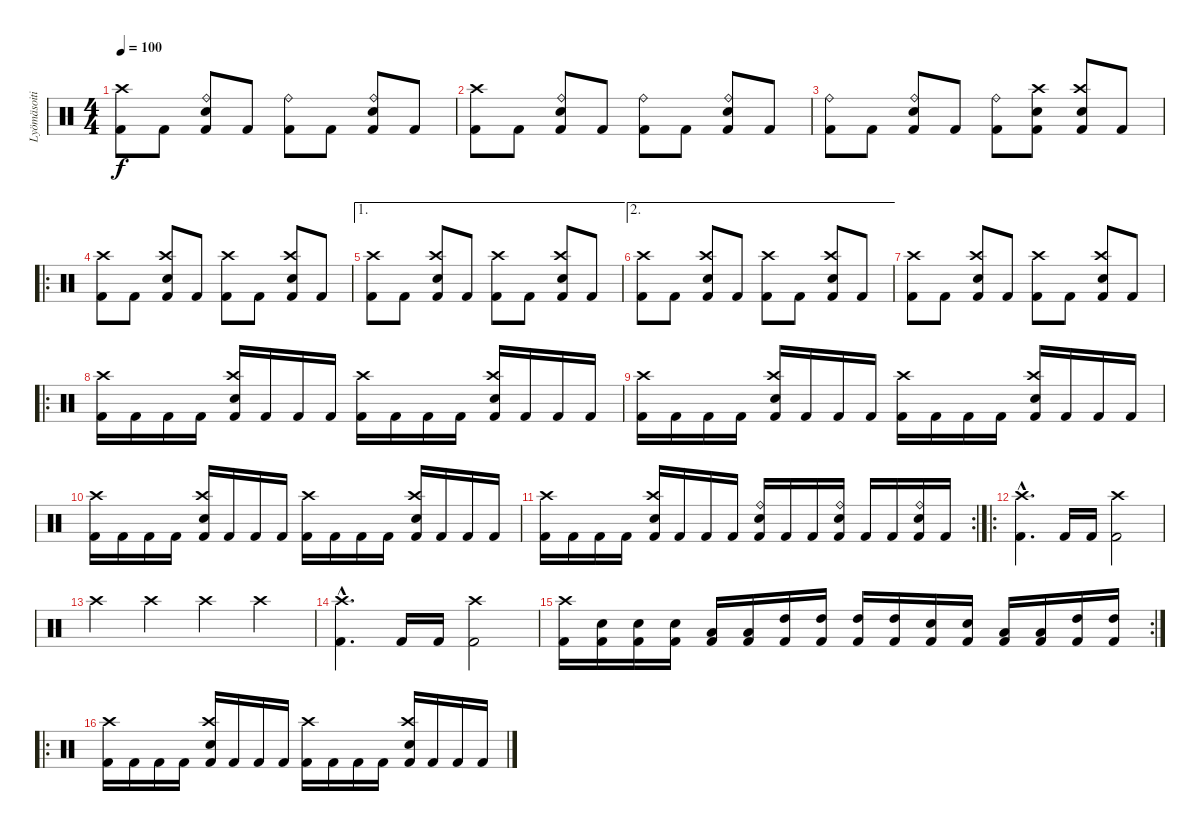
\track ("Lyömäsoitin" "Lyömäsoiti") {instrument percussion}
\staff {score}
\articulation defaults
\ts (4 4)
\tempo 100
\clef neutral
\ks c
("Kick (hit) 2" "Crash high (hit)").8{dy f} "Kick (hit) 2".8 ("Kick (hit) 2" "Ride (bell)" "Electric Snare (hit)").8 "Kick (hit) 2".8 ("Kick (hit) 2" "Ride (bell)").8 "Kick (hit) 2".8 ("Kick (hit) 2" "Ride (bell)" "Electric Snare (hit)").8 "Kick (hit) 2".8 |
("Kick (hit) 2" "Crash high (hit)").8 "Kick (hit) 2".8 ("Kick (hit) 2" "Ride (bell)" "Electric Snare (hit)").8 "Kick (hit) 2".8 ("Kick (hit) 2" "Ride (bell)").8 "Kick (hit) 2".8 ("Kick (hit) 2" "Ride (bell)" "Electric Snare (hit)").8 "Kick (hit) 2".8 |
("Kick (hit) 2" "Ride (bell)").8 "Kick (hit) 2".8 ("Kick (hit) 2" "Ride (bell)" "Electric Snare (hit)").8 "Kick (hit) 2".8 ("Kick (hit) 2" "Ride (bell)").8 ("Kick (hit) 2" "Electric Snare (hit)" "Crash high (hit)").8 ("Kick (hit) 2" "Electric Snare (hit)" "Crash high (hit)").8 "Kick (hit) 2".8 |
\ro
("Kick (hit) 2" "Crash high (hit)").8 "Kick (hit) 2".8 ("Kick (hit) 2" "Crash high (hit)" "Electric Snare (hit)").8 "Kick (hit) 2".8 ("Kick (hit) 2" "Crash high (hit)").8 "Kick (hit) 2".8 ("Kick (hit) 2" "Crash high (hit)" "Electric Snare (hit)").8 "Kick (hit) 2".8 |
\ae 1
("Kick (hit) 2" "Crash high (hit)").8 "Kick (hit) 2".8 ("Kick (hit) 2" "Crash high (hit)" "Electric Snare (hit)").8 "Kick (hit) 2".8 ("Kick (hit) 2" "Crash high (hit)").8 "Kick (hit) 2".8 ("Kick (hit) 2" "Crash high (hit)" "Electric Snare (hit)").8 "Kick (hit) 2".8 |
\ae 2
("Kick (hit) 2" "Crash high (hit)").8 "Kick (hit) 2".8 ("Kick (hit) 2" "Crash high (hit)" "Electric Snare (hit)").8 "Kick (hit) 2".8 ("Kick (hit) 2" "Crash high (hit)").8 "Kick (hit) 2".8 ("Kick (hit) 2" "Crash high (hit)" "Electric Snare (hit)").8 "Kick (hit) 2".8 |
("Kick (hit) 2" "Crash high (hit)").8 "Kick (hit) 2".8 ("Kick (hit) 2" "Crash high (hit)" "Electric Snare (hit)").8 "Kick (hit) 2".8 ("Kick (hit) 2" "Crash high (hit)").8 "Kick (hit) 2".8 ("Kick (hit) 2" "Crash high (hit)" "Electric Snare (hit)").8 "Kick (hit) 2".8 |
\ro
("Kick (hit) 2" "Crash high (hit)").16 "Kick (hit) 2".16 "Kick (hit) 2".16 "Kick (hit) 2".16 ("Kick (hit) 2" "Crash high (hit)" "Electric Snare (hit)").16 "Kick (hit) 2".16 "Kick (hit) 2".16 "Kick (hit) 2".16 ("Kick (hit) 2" "Crash high (hit)").16 "Kick (hit) 2".16 "Kick (hit) 2".16 "Kick (hit) 2".16 ("Kick (hit) 2" "Crash high (hit)" "Electric Snare (hit)").16 "Kick (hit) 2".16 "Kick (hit) 2".16 "Kick (hit) 2".16 |
("Kick (hit) 2" "Crash high (hit)").16 "Kick (hit) 2".16 "Kick (hit) 2".16 "Kick (hit) 2".16 ("Kick (hit) 2" "Crash high (hit)" "Electric Snare (hit)").16 "Kick (hit) 2".16 "Kick (hit) 2".16 "Kick (hit) 2".16 ("Kick (hit) 2" "Crash high (hit)").16 "Kick (hit) 2".16 "Kick (hit) 2".16 "Kick (hit) 2".16 ("Kick (hit) 2" "Crash high (hit)" "Electric Snare (hit)").16 "Kick (hit) 2".16 "Kick (hit) 2".16 "Kick (hit) 2".16 |
("Kick (hit) 2" "Crash high (hit)").16 "Kick (hit) 2".16 "Kick (hit) 2".16 "Kick (hit) 2".16 ("Kick (hit) 2" "Crash high (hit)" "Electric Snare (hit)").16 "Kick (hit) 2".16 "Kick (hit) 2".16 "Kick (hit) 2".16 ("Kick (hit) 2" "Crash high (hit)").16 "Kick (hit) 2".16 "Kick (hit) 2".16 "Kick (hit) 2".16 ("Kick (hit) 2" "Crash high (hit)" "Electric Snare (hit)").16 "Kick (hit) 2".16 "Kick (hit) 2".16 "Kick (hit) 2".16 |
\rc 2
("Kick (hit) 2" "Crash high (hit)").16 "Kick (hit) 2".16 "Kick (hit) 2".16 "Kick (hit) 2".16 ("Kick (hit) 2" "Crash high (hit)" "Electric Snare (hit)").16 "Kick (hit) 2".16 "Kick (hit) 2".16 "Kick (hit) 2".16 ("Kick (hit) 2" "Electric Snare (hit)" "Ride (bell)").16 "Kick (hit) 2".16 "Kick (hit) 2".16 ("Kick (hit) 2" "Electric Snare (hit)" "Ride (bell)").16 "Kick (hit) 2".16 "Kick (hit) 2".16 ("Kick (hit) 2" "Electric Snare (hit)" "Ride (bell)").16 "Kick (hit) 2".16 |
\ro
("Kick (hit) 2"{hac} "Crash high (hit)"{hac}).4{d} "Kick (hit) 2".16 "Kick (hit) 2".16 ("Kick (hit) 2" "Crash high (hit)").2 |
"Crash high (hit)".4 "Crash high (hit)".4 "Crash high (hit)".4 "Crash high (hit)".4 |
("Kick (hit) 2"{hac} "Crash high (hit)"{hac}).4{d} "Kick (hit) 2".16 "Kick (hit) 2".16 ("Kick (hit) 2" "Crash high (hit)").2 |
\rc 2
("Kick (hit) 2" "Crash high (hit)").16 ("Kick (hit) 2" "Electric Snare (hit)").16 ("Kick (hit) 2" "Electric Snare (hit)").16 ("Kick (hit) 2" "Electric Snare (hit)").16 ("Kick (hit) 2" "Low Tom (hit)").16 ("Kick (hit) 2" "Low Tom (hit)").16 ("Kick (hit) 2" "High Tom (hit)").16 ("Kick (hit) 2" "High Tom (hit)").16 ("Kick (hit) 2" "High Tom (hit)").16 ("Kick (hit) 2" "High Tom (hit)").16 ("Kick (hit) 2" "Electric Snare (hit)").16 ("Kick (hit) 2" "Electric Snare (hit)").16 ("Kick (hit) 2" "Low Tom (hit)").16 ("Kick (hit) 2" "Low Tom (hit)").16 ("Kick (hit) 2" "High Tom (hit)").16 ("Kick (hit) 2" "High Tom (hit)").16 |
\ro
("Kick (hit) 2" "Crash high (hit)").16 "Kick (hit) 2".16 "Kick (hit) 2".16 "Kick (hit) 2".16 ("Kick (hit) 2" "Crash high (hit)" "Electric Snare (hit)").16 "Kick (hit) 2".16 "Kick (hit) 2".16 "Kick (hit) 2".16 ("Kick (hit) 2" "Crash high (hit)").16 "Kick (hit) 2".16 "Kick (hit) 2".16 "Kick (hit) 2".16 ("Kick (hit) 2" "Crash high (hit)" "Electric Snare (hit)").16 "Kick (hit) 2".16 "Kick (hit) 2".16 "Kick (hit) 2".16
